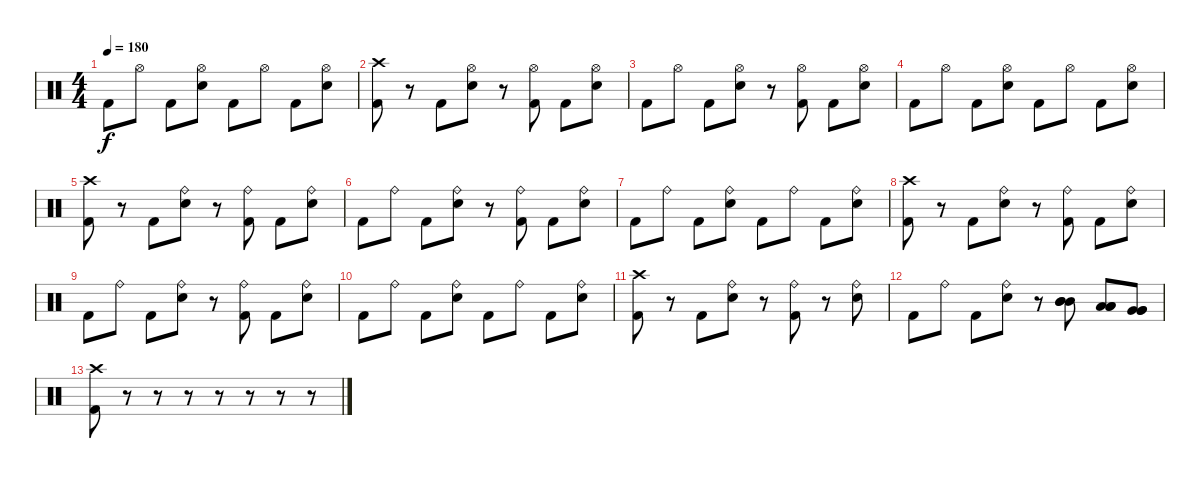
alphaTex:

\track "" {instrument percussion}
\staff {score}
\articulation defaults
\ts (4 4)
\tempo 180
\clef neutral
\ks c "Kick (hit) 2".8{dy f} "Hi-Hat (open)".8 "Kick (hit) 2".8
("Hi-Hat (open)" "Electric Snare (hit)").8 "Kick (hit) 2".8 "Hi-Hat (open)".8 "Kick (hit) 2".8 ("Hi-Hat (open)" "Electric Snare (hit)").8 |
("Crash high (hit)" "Kick (hit) 2").8 r.8 "Kick (hit) 2".8 ("Hi-Hat (open)" "Electric Snare (hit)").8 r.8 ("Hi-Hat (open)" "Kick (hit) 2").8 "Kick (hit) 2".8 ("Hi-Hat (open)" "Electric Snare (hit)").8 |
"Kick (hit) 2".8 "Hi-Hat (open)".8 "Kick (hit) 2".8 ("Hi-Hat (open)" "Electric Snare (hit)").8 r.8 ("Hi-Hat (open)" "Kick (hit) 2").8 "Kick (hit) 2".8 ("Hi-Hat (open)" "Electric Snare (hit)").8 |
"Kick (hit) 2".8 "Hi-Hat (open)".8 "Kick (hit) 2".8 ("Hi-Hat (open)" "Electric Snare (hit)").8 "Kick (hit) 2".8 "Hi-Hat (open)".8 "Kick (hit) 2".8 ("Hi-Hat (open)" "Electric Snare (hit)").8 |
("Crash high (hit)" "Kick (hit) 2").8 r.8 "Kick (hit) 2".8 ("Ride (bell)" "Electric Snare (hit)").8 r.8 ("Ride (bell)" "Kick (hit) 2").8 "Kick (hit) 2".8 ("Ride (bell)" "Electric Snare (hit)").8 |
"Kick (hit) 2".8 "Ride (bell)".8 "Kick (hit) 2".8 ("Ride (bell)" "Electric Snare (hit)").8 r.8 ("Ride (bell)" "Kick (hit) 2").8 "Kick (hit) 2".8 ("Ride (bell)" "Electric Snare (hit)").8 |
"Kick (hit) 2".8 "Ride (bell)".8 "Kick (hit) 2".8 ("Ride (bell)" "Electric Snare (hit)").8 "Kick (hit) 2".8 "Ride (bell)".8 "Kick (hit) 2".8 ("Ride (bell)" "Electric Snare (hit)").8 |
("Crash high (hit)" "Kick (hit) 2").8 r.8 "Kick (hit) 2".8 ("Ride (bell)" "Electric Snare (hit)").8 r.8 ("Ride (bell)" "Kick (hit) 2").8 "Kick (hit) 2".8 ("Ride (bell)" "Electric Snare (hit)").8 |
"Kick (hit) 2".8 "Ride (bell)".8 "Kick (hit) 2".8 ("Ride (bell)" "Electric Snare (hit)").8 r.8 ("Ride (bell)" "Kick (hit) 2").8 "Kick (hit) 2".8 ("Ride (bell)" "Electric Snare (hit)").8 |
"Kick (hit) 2".8 "Ride (bell)".8 "Kick (hit) 2".8 ("Ride (bell)" "Electric Snare (hit)").8 "Kick (hit) 2".8 "Ride (bell)".8 "Kick (hit) 2".8 ("Ride (bell)" "Electric Snare (hit)").8 |
("Crash high (hit)" "Kick (hit) 2").8 r.8 "Kick (hit) 2".8 ("Ride (bell)" "Electric Snare (hit)").8 r.8 ("Ride (bell)" "Kick (hit) 2").8 r.8 ("Ride (bell)" "Electric Snare (hit)").8 |
"Kick (hit) 2".8 "Ride (bell)".8 "Kick (hit) 2".8 ("Ride (bell)" "Electric Snare (hit)").8 r.8 ("Mid Tom (hit)" "Mid Tom (hit)" "Mid Tom (hit)").8 ("Low Tom (hit)" "Low Tom (hit)" "Low Tom (hit)").8 ("Very Low Tom (hit)" "Very Low Tom (hit)" "Very Low Tom (hit)").8 |
("Crash high (hit)" "Kick (hit) 2").8 r.8 r.8 r.8 r.8 r.8 r.8 r.8
